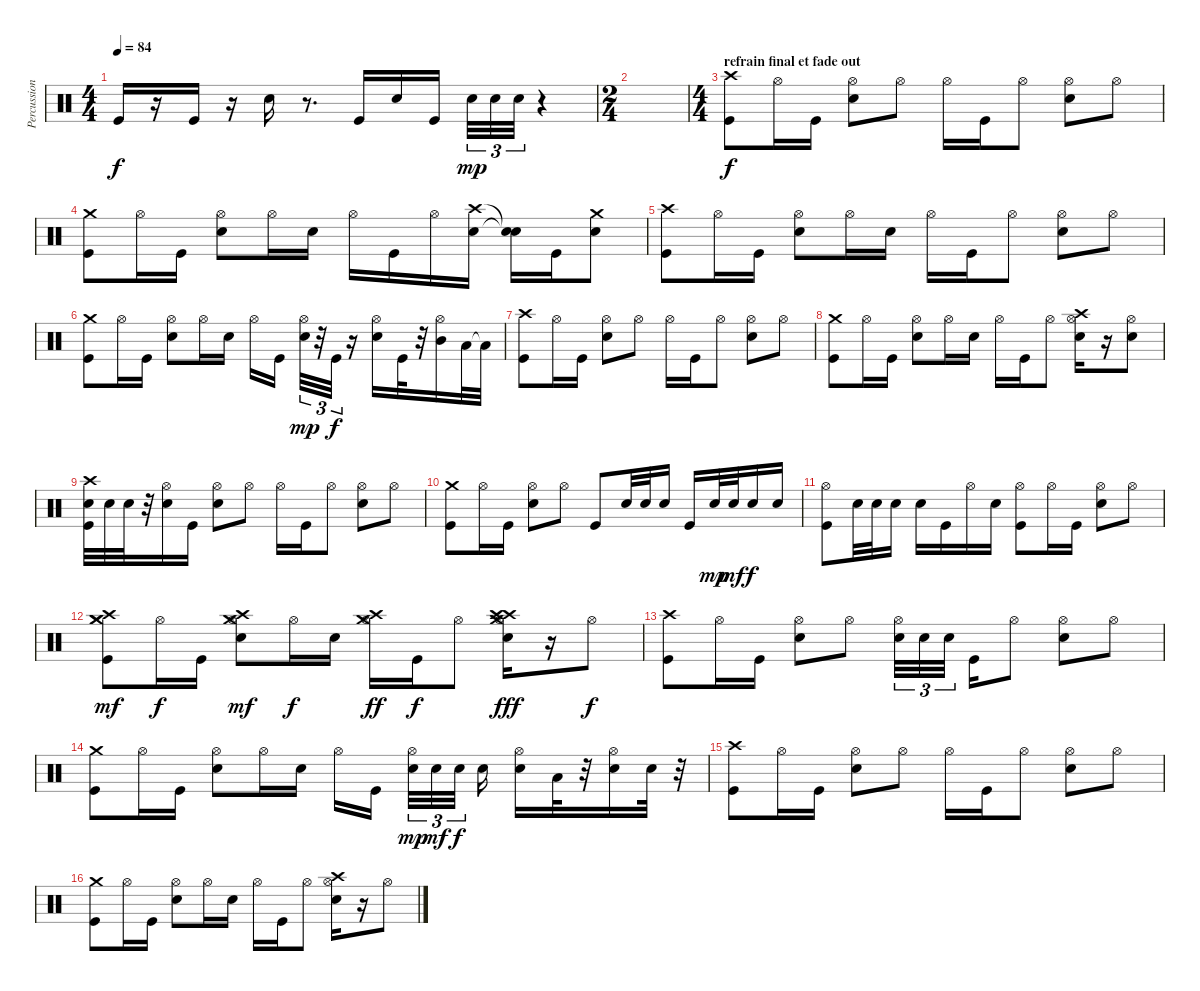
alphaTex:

\track ("Percussions" "Percussion") {instrument percussion}
\staff {score}
\articulation defaults
\ts (4 4)
\tempo 84
\clef neutral
\ks c "Kick (hit)".16{dy f}
r.16 "Kick (hit)".16 r.16 "Snare (hit) 2".16 r.8{d} "Kick (hit)".16 "Snare (hit) 2".16 "Kick (hit)".16 "Snare (hit) 2".32{tu (3 2) dy mp} "Snare (hit) 2".32{tu (3 2)} "Snare (hit) 2".32{tu (3 2)} r.4 |
\ts (2 4)
|
\ts (4 4)
\section ("" "refrain final et fade out")
("Crash high (hit)" "Kick (hit)").8{dy f} "Hi-Hat (open)".16 "Kick (hit)".16 ("Hi-Hat (open)" "Snare (hit) 2").8 "Hi-Hat (open)".8 "Hi-Hat (open)".16 "Kick (hit)".16 "Hi-Hat (open)".8 ("Hi-Hat (open)" "Snare (hit) 2").8 "Hi-Hat (open)".8 |
("Crash medium (hit)" "Kick (hit)").8 "Hi-Hat (open)".16 "Kick (hit)".16 ("Hi-Hat (open)" "Snare (hit) 2").8 "Hi-Hat (open)".16 "Snare (hit) 2".16 "Hi-Hat (open)".16 "Kick (hit)".16 "Hi-Hat (open)".16 ("Crash high (hit)" "Snare (hit) 2").16 ("Snare (hit)"{t} "Snare (hit)"{t}).16 "Kick (hit)".16 ("Crash medium (hit)" "Snare (hit) 2").8 |
("Crash high (hit)" "Kick (hit)").8 "Hi-Hat (open)".16 "Kick (hit)".16 ("Hi-Hat (open)" "Snare (hit) 2").8 "Hi-Hat (open)".16 "Snare (hit) 2".16 "Hi-Hat (open)".16 "Kick (hit)".16 "Hi-Hat (open)".8 ("Hi-Hat (open)" "Snare (hit) 2").8 "Hi-Hat (open)".8 |
("Crash medium (hit)" "Kick (hit)").8 "Hi-Hat (open)".16 "Kick (hit)".16 ("Hi-Hat (open)" "Snare (hit) 2").8 "Hi-Hat (open)".16 "Snare (hit) 2".16 "Hi-Hat (open)".16 "Kick (hit)".16 ("Hi-Hat (open)" "Snare (hit) 2").32{tu (3 2) dy mp} r.32{tu (3 2)} "Kick (hit)".32{tu (3 2) dy f} r.16 ("Hi-Hat (open)" "Snare (hit) 2").16 "Kick (hit)".32 r.32 ("Hi-Hat (open)" "Mid Tom (hit)").16 "Low Tom (hit)".32 "Low Tom (hit)"{t}.32 |
("Crash high (hit)" "Kick (hit)").8 "Hi-Hat (open)".16 "Kick (hit)".16 ("Hi-Hat (open)" "Snare (hit) 2").8 "Hi-Hat (open)".8 "Hi-Hat (open)".16 "Kick (hit)".16 "Hi-Hat (open)".8 ("Hi-Hat (open)" "Snare (hit) 2").8 "Hi-Hat (open)".8 |
("Crash medium (hit)" "Kick (hit)").8 "Hi-Hat (open)".16 "Kick (hit)".16 ("Hi-Hat (open)" "Snare (hit) 2").8 "Hi-Hat (open)".16 "Snare (hit) 2".16 "Hi-Hat (open)".16 "Kick (hit)".16 "Hi-Hat (open)".8 ("Hi-Hat (open)" "Crash high (hit)" "Snare (hit) 2").16 r.16 ("Hi-Hat (open)" "Snare (hit) 2").8 |
("Crash high (hit)" "Snare (hit) 2" "Kick (hit)").32 "Snare (hit) 2".32 "Snare (hit) 2".32 r.32 ("Hi-Hat (open)" "Snare (hit) 2").16 "Kick (hit)".16 ("Hi-Hat (open)" "Snare (hit) 2").8 "Hi-Hat (open)".8 "Hi-Hat (open)".16 "Kick (hit)".16 "Hi-Hat (open)".8 ("Hi-Hat (open)" "Snare (hit) 2").8 "Hi-Hat (open)".8 |
("Crash medium (hit)" "Kick (hit)").8 "Hi-Hat (open)".16 "Kick (hit)".16 ("Hi-Hat (open)" "Snare (hit) 2").8 "Hi-Hat (open)".8 "Kick (hit)".8 "Snare (hit) 2".32 "Snare (hit) 2".32 "Snare (hit) 2".16 "Kick (hit)".16 "Snare (hit) 2".32{dy mp} "Snare (hit) 2".32{dy mf} "Snare (hit) 2".16{dy f} "Snare (hit) 2".16 |
("Hi-Hat (open)" "Kick (hit)").8 "Snare (hit) 2".32 "Snare (hit) 2".32 "Snare (hit) 2".16 "Snare (hit) 2".16 "Kick (hit)".16 "Hi-Hat (open)".16 "Snare (hit) 2".16 ("Hi-Hat (open)" "Kick (hit)").8 "Hi-Hat (open)".16 "Kick (hit)".16 ("Hi-Hat (open)" "Snare (hit) 2").8 "Hi-Hat (open)".8 |
("Crash medium (hit)" "Crash high (hit)" "Crash medium (hit)" "Kick (hit)").8{dy mf} "Hi-Hat (open)".16{dy f} "Kick (hit)".16 ("Crash high (hit)" "Hi-Hat (open)" "Crash medium (hit)" "Snare (hit) 2").8{dy mf} "Hi-Hat (open)".16{dy f} "Snare (hit) 2".16 ("Crash high (hit)" "Hi-Hat (open)" "Crash medium (hit)").16{dy ff} "Kick (hit)".16{dy f} "Hi-Hat (open)".8 ("Crash high (hit)" "Hi-Hat (open)" "Crash medium (hit)" "Crash high (hit)" "Snare (hit) 2").16{dy fff} r.16 "Hi-Hat (open)".8{dy f} |
("Crash high (hit)" "Kick (hit)").8 "Hi-Hat (open)".16 "Kick (hit)".16 ("Hi-Hat (open)" "Snare (hit) 2").8 "Hi-Hat (open)".8 ("Hi-Hat (open)" "Snare (hit) 2").32{tu (3 2)} "Snare (hit) 2".32{tu (3 2)} "Snare (hit) 2".32{tu (3 2)} "Kick (hit)".16 "Hi-Hat (open)".8 ("Hi-Hat (open)" "Snare (hit) 2").8 "Hi-Hat (open)".8 |
("Crash medium (hit)" "Kick (hit)").8 "Hi-Hat (open)".16 "Kick (hit)".16 ("Hi-Hat (open)" "Snare (hit) 2").8 "Hi-Hat (open)".16 "Snare (hit) 2".16 "Hi-Hat (open)".16 "Kick (hit)".16 ("Hi-Hat (open)" "Snare (hit) 2").32{tu (3 2) dy mp} "Snare (hit) 2".32{tu (3 2) dy mf} "Snare (hit) 2".32{tu (3 2) dy f} "Snare (hit) 2".16 ("Hi-Hat (open)" "Snare (hit) 2").16 "Low Tom (hit)".32 r.32 ("Hi-Hat (open)" "Snare (hit) 2").16 "Snare (hit) 2".32 r.32 |
("Crash high (hit)" "Kick (hit)").8{volume 5} "Hi-Hat (open)".16 "Kick (hit)".16 ("Hi-Hat (open)" "Snare (hit) 2").8 "Hi-Hat (open)".8 "Hi-Hat (open)".16 "Kick (hit)".16 "Hi-Hat (open)".8 ("Hi-Hat (open)" "Snare (hit) 2").8 "Hi-Hat (open)".8 |
("Crash medium (hit)" "Kick (hit)").8 "Hi-Hat (open)".16 "Kick (hit)".16 ("Hi-Hat (open)" "Snare (hit) 2").8 "Hi-Hat (open)".16 "Snare (hit) 2".16 "Hi-Hat (open)".16 "Kick (hit)".16 "Hi-Hat (open)".8 ("Hi-Hat (open)" "Crash high (hit)" "Snare (hit) 2").16 r.16 "Hi-Hat (open)".8
